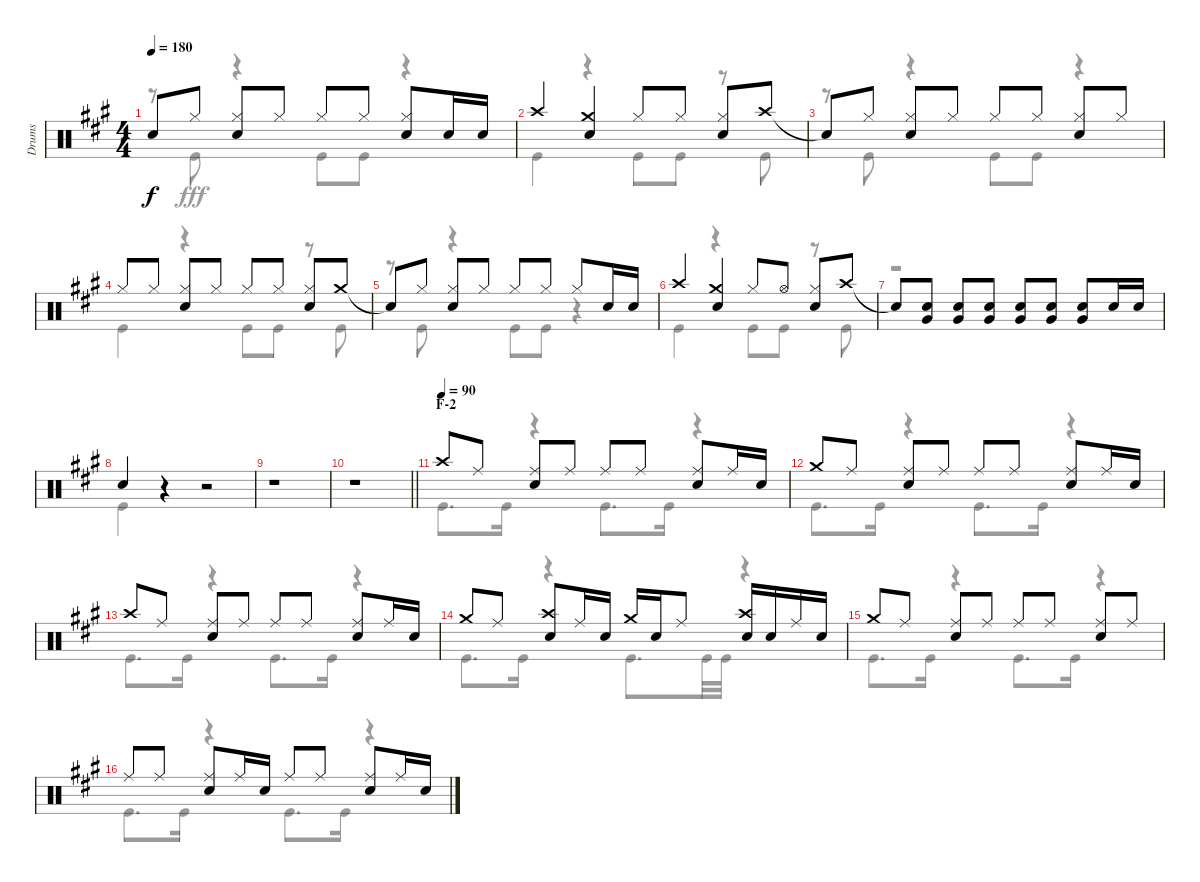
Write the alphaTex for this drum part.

\track ("Drums" "Drums") {instrument percussion}
\staff {score}
\articulation defaults
\voice
\ts (4 4)
\tempo 180
\clef neutral
\ks a "Snare (hit)"{t}.8{dy f} "Hi-Hat (closed)".8
("Hi-Hat (closed)" "Snare (hit) 2").8 "Hi-Hat (closed)".8 "Hi-Hat (closed)".8 "Hi-Hat (closed)".8 ("Hi-Hat (closed)" "Snare (hit) 2").8 "Snare (hit) 2".16 "Snare (hit) 2".16 |
"Crash high (hit)".4 ("Crash medium (hit)" "Snare (hit) 2").4 "Hi-Hat (closed)".8 "Hi-Hat (closed)".8 ("Hi-Hat (closed)" "Snare (hit) 2").8 "Crash high (hit)".8 |
"Snare (hit)"{t}.8 "Hi-Hat (closed)".8 ("Hi-Hat (closed)" "Snare (hit) 2").8 "Hi-Hat (closed)".8 "Hi-Hat (closed)".8 "Hi-Hat (closed)".8 ("Hi-Hat (closed)" "Snare (hit) 2").8 "Hi-Hat (closed)".8 |
"Hi-Hat (closed)".8 "Hi-Hat (closed)".8 ("Hi-Hat (closed)" "Snare (hit) 2").8 "Hi-Hat (closed)".8 "Hi-Hat (closed)".8 "Hi-Hat (closed)".8 ("Hi-Hat (closed)" "Snare (hit) 2").8 "Crash medium (hit)".8 |
"Snare (hit)"{t}.8 "Hi-Hat (closed)".8 ("Hi-Hat (closed)" "Snare (hit) 2").8 "Hi-Hat (closed)".8 "Hi-Hat (closed)".8 "Hi-Hat (closed)".8 "Hi-Hat (closed)".8 "Snare (hit) 2".16 "Snare (hit) 2".16 |
"Crash high (hit)".4 ("Crash medium (hit)" "Snare (hit) 2").4 "Hi-Hat (closed)".8 "Hi-Hat (open)".8 ("Hi-Hat (closed)" "Snare (hit) 2").8 "Crash high (hit)".8 |
"Snare (hit)"{t}.8 ("Snare (hit) 2" "Very Low Tom (hit)").8 ("Snare (hit) 2" "Very Low Tom (hit)").8 ("Snare (hit) 2" "Very Low Tom (hit)").8 ("Snare (hit) 2" "Very Low Tom (hit)").8 ("Snare (hit) 2" "Very Low Tom (hit)").8 ("Snare (hit) 2" "Very Low Tom (hit)").8 "Snare (hit) 2".16 "Snare (hit) 2".16 |
"Snare (hit) 2".4 r.4 r.2 |
r.1 |
\barLineRight lightlight
r.1 |
\section ("" "F-2")
\tempo (90)
"Crash high (hit)".8 "Ride (middle)".8 ("Ride (middle)" "Snare (hit) 2").8 "Ride (middle)".8 "Ride (middle)".8 "Ride (middle)".8 ("Ride (middle)" "Snare (hit) 2").8 "Ride (middle)".16 "Snare (hit) 2".16 |
"Crash medium (hit)".8 "Ride (middle)".8 ("Ride (middle)" "Snare (hit) 2").8 "Ride (middle)".8 "Ride (middle)".8 "Ride (middle)".8 ("Ride (middle)" "Snare (hit) 2").8 "Ride (middle)".16 "Snare (hit) 2".16 |
"Crash high (hit)".8 "Ride (middle)".8 ("Ride (middle)" "Snare (hit) 2").8 "Ride (middle)".8 "Ride (middle)".8 "Ride (middle)".8 ("Ride (middle)" "Snare (hit) 2").8 "Ride (middle)".16 "Snare (hit) 2".16 |
"Crash medium (hit)".8 "Ride (middle)".8 ("Crash high (hit)" "Snare (hit) 2").8 "Ride (middle)".16 "Snare (hit) 2".16 "Crash medium (hit)".16 "Snare (hit) 2".16 "Ride (middle)".8 ("Crash high (hit)" "Snare (hit) 2").16 "Snare (hit) 2".16 "Ride (middle)".16 "Snare (hit) 2".16 |
"Crash medium (hit)".8 "Ride (middle)".8 ("Ride (middle)" "Snare (hit) 2").8 "Ride (middle)".8 "Ride (middle)".8 "Ride (middle)".8 ("Ride (middle)" "Snare (hit) 2").8 "Ride (middle)".8 |
"Ride (middle)".8 "Ride (middle)".8 ("Ride (middle)" "Snare (hit) 2").8 "Ride (middle)".16 "Snare (hit) 2".16 "Ride (middle)".8 "Ride (middle)".8 ("Ride (middle)" "Snare (hit) 2").8 "Ride (middle)".16 "Snare (hit) 2".16
\voice
\clef neutral
\ottava regular
\simile none
\ks a
r.8{dy fff} "Kick (hit)".8 r.4 "Kick (hit)".8 "Kick (hit)".8 r.4 |
"Kick (hit)".4 r.4 "Kick (hit)".8 "Kick (hit)".8 r.8 "Kick (hit)".8 |
r.8 "Kick (hit)".8 r.4 "Kick (hit)".8 "Kick (hit)".8 r.4 |
"Kick (hit)".4 r.4 "Kick (hit)".8 "Kick (hit)".8 r.8 "Kick (hit)".8 |
r.8 "Kick (hit)".8 r.4 "Kick (hit)".8 "Kick (hit)".8 r.4 |
"Kick (hit)".4 r.4 "Kick (hit)".8 "Kick (hit)".8 r.8 "Kick (hit)".8 |
r.1 |
"Kick (hit)".4 r.4 r.2 |
r.1 |
\barLineRight lightlight
r.1 |
"Kick (hit)".8{d} "Kick (hit)".16 r.4 "Kick (hit)".8{d} "Kick (hit)".16 r.4 |
"Kick (hit)".8{d} "Kick (hit)".16 r.4 "Kick (hit)".8{d} "Kick (hit)".16 r.4 |
"Kick (hit)".8{d} "Kick (hit)".16 r.4 "Kick (hit)".8{d} "Kick (hit)".16 r.4 |
"Kick (hit)".8{d} "Kick (hit)".16 r.4 "Kick (hit)".8{d} "Kick (hit)".32 "Kick (hit)".32 r.4 |
"Kick (hit)".8{d} "Kick (hit)".16 r.4 "Kick (hit)".8{d} "Kick (hit)".16 r.4 |
"Kick (hit)".8{d} "Kick (hit)".16 r.4 "Kick (hit)".8{d} "Kick (hit)".16 r.4
